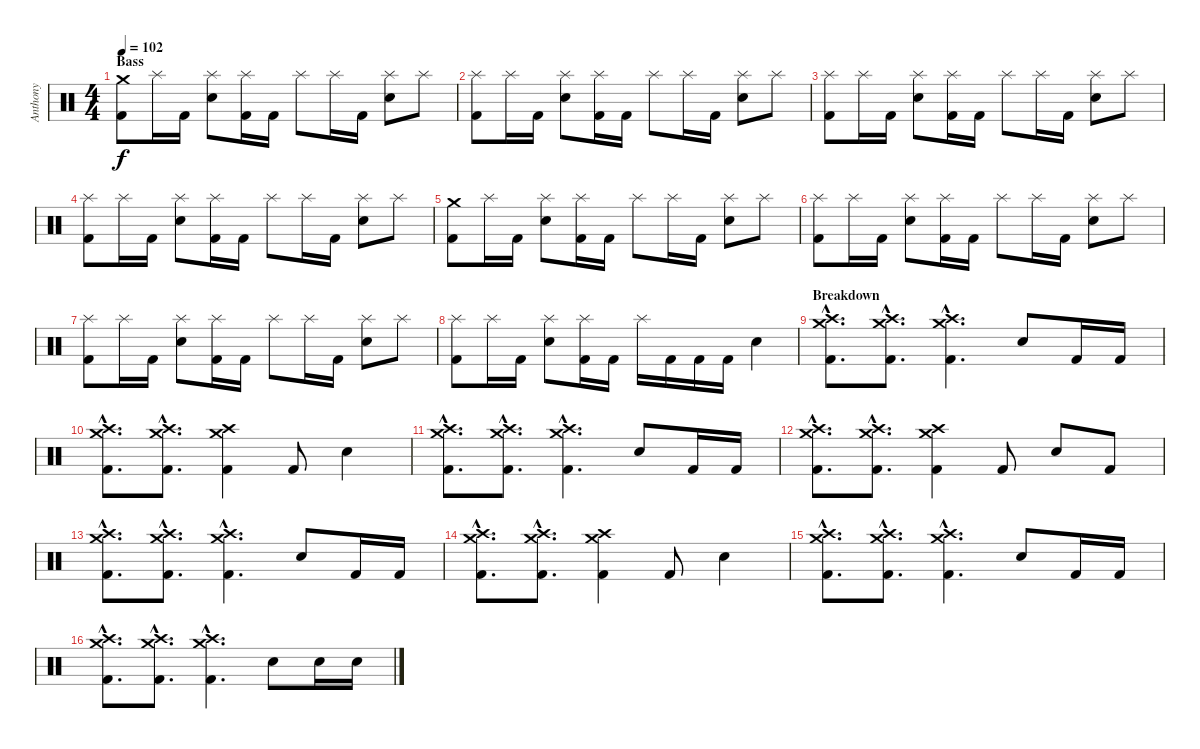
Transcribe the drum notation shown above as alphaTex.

\track ("Anthony" "Anthony") {instrument percussion}
\staff {score}
\articulation defaults
\ts (4 4)
\section ("" "Bass")
\tempo 102
\clef neutral
\ks c
("Crash medium (hit)" "Kick (hit) 2").8{dy f} "Splash (hit)".16 "Kick (hit) 2".16 ("Splash (hit)" "Electric Snare (hit)").8 ("Splash (hit)" "Kick (hit) 2").16 "Kick (hit) 2".16 "Splash (hit)".8 "Splash (hit)".16 "Kick (hit) 2".16 ("Splash (hit)" "Electric Snare (hit)").8 "Splash (hit)".8 |
("Splash (hit)" "Kick (hit) 2").8 "Splash (hit)".16 "Kick (hit) 2".16 ("Splash (hit)" "Electric Snare (hit)").8 ("Splash (hit)" "Kick (hit) 2").16 "Kick (hit) 2".16 "Splash (hit)".8 "Splash (hit)".16 "Kick (hit) 2".16 ("Splash (hit)" "Electric Snare (hit)").8 "Splash (hit)".8 |
("Splash (hit)" "Kick (hit) 2").8 "Splash (hit)".16 "Kick (hit) 2".16 ("Splash (hit)" "Electric Snare (hit)").8 ("Splash (hit)" "Kick (hit) 2").16 "Kick (hit) 2".16 "Splash (hit)".8 "Splash (hit)".16 "Kick (hit) 2".16 ("Splash (hit)" "Electric Snare (hit)").8 "Splash (hit)".8 |
("Splash (hit)" "Kick (hit) 2").8 "Splash (hit)".16 "Kick (hit) 2".16 ("Splash (hit)" "Electric Snare (hit)").8 ("Splash (hit)" "Kick (hit) 2").16 "Kick (hit) 2".16 "Splash (hit)".8 "Splash (hit)".16 "Kick (hit) 2".16 ("Splash (hit)" "Electric Snare (hit)").8 "Splash (hit)".8 |
("Crash medium (hit)" "Kick (hit) 2").8 "Splash (hit)".16 "Kick (hit) 2".16 ("Splash (hit)" "Electric Snare (hit)").8 ("Splash (hit)" "Kick (hit) 2").16 "Kick (hit) 2".16 "Splash (hit)".8 "Splash (hit)".16 "Kick (hit) 2".16 ("Splash (hit)" "Electric Snare (hit)").8 "Splash (hit)".8 |
("Splash (hit)" "Kick (hit) 2").8 "Splash (hit)".16 "Kick (hit) 2".16 ("Splash (hit)" "Electric Snare (hit)").8 ("Splash (hit)" "Kick (hit) 2").16 "Kick (hit) 2".16 "Splash (hit)".8 "Splash (hit)".16 "Kick (hit) 2".16 ("Splash (hit)" "Electric Snare (hit)").8 "Splash (hit)".8 |
("Splash (hit)" "Kick (hit) 2").8 "Splash (hit)".16 "Kick (hit) 2".16 ("Splash (hit)" "Electric Snare (hit)").8 ("Splash (hit)" "Kick (hit) 2").16 "Kick (hit) 2".16 "Splash (hit)".8 "Splash (hit)".16 "Kick (hit) 2".16 ("Splash (hit)" "Electric Snare (hit)").8 "Splash (hit)".8 |
("Splash (hit)" "Kick (hit) 2").8 "Splash (hit)".16 "Kick (hit) 2".16 ("Splash (hit)" "Electric Snare (hit)").8 ("Splash (hit)" "Kick (hit) 2").16 "Kick (hit) 2".16 "Splash (hit)".16 "Kick (hit) 2".16 "Kick (hit) 2".16 "Kick (hit) 2".16 "Electric Snare (hit)".4 |
\section ("" "Breakdown")
("Crash medium (hit)"{hac} "Crash high (hit)"{hac} "Kick (hit) 2"{hac}).8{d} ("Crash medium (hit)"{hac} "Crash high (hit)"{hac} "Kick (hit) 2"{hac}).8{d} ("Crash medium (hit)"{hac} "Crash high (hit)"{hac} "Kick (hit) 2"{hac}).4{d} "Electric Snare (hit)".8 "Kick (hit) 2".16 "Kick (hit) 2".16 |
("Crash medium (hit)"{hac} "Crash high (hit)"{hac} "Kick (hit) 2"{hac}).8{d} ("Crash medium (hit)"{hac} "Crash high (hit)"{hac} "Kick (hit) 2"{hac}).8{d} ("Crash medium (hit)" "Crash high (hit)" "Kick (hit) 2").4 "Kick (hit) 2".8 "Electric Snare (hit)".4 |
("Crash medium (hit)"{hac} "Crash high (hit)"{hac} "Kick (hit) 2"{hac}).8{d} ("Crash medium (hit)"{hac} "Crash high (hit)"{hac} "Kick (hit) 2"{hac}).8{d} ("Crash medium (hit)"{hac} "Crash high (hit)"{hac} "Kick (hit) 2"{hac}).4{d} "Electric Snare (hit)".8 "Kick (hit) 2".16 "Kick (hit) 2".16 |
("Crash medium (hit)"{hac} "Crash high (hit)"{hac} "Kick (hit) 2"{hac}).8{d} ("Crash medium (hit)"{hac} "Crash high (hit)"{hac} "Kick (hit) 2"{hac}).8{d} ("Crash medium (hit)" "Crash high (hit)" "Kick (hit) 2").4 "Kick (hit) 2".8 "Electric Snare (hit)".8 "Kick (hit) 2".8 |
("Crash medium (hit)"{hac} "Crash high (hit)"{hac} "Kick (hit) 2"{hac}).8{d} ("Crash medium (hit)"{hac} "Crash high (hit)"{hac} "Kick (hit) 2"{hac}).8{d} ("Crash medium (hit)"{hac} "Crash high (hit)"{hac} "Kick (hit) 2"{hac}).4{d} "Electric Snare (hit)".8 "Kick (hit) 2".16 "Kick (hit) 2".16 |
("Crash medium (hit)"{hac} "Crash high (hit)"{hac} "Kick (hit) 2"{hac}).8{d} ("Crash medium (hit)"{hac} "Crash high (hit)"{hac} "Kick (hit) 2"{hac}).8{d} ("Crash medium (hit)" "Crash high (hit)" "Kick (hit) 2").4 "Kick (hit) 2".8 "Electric Snare (hit)".4 |
("Crash medium (hit)"{hac} "Crash high (hit)"{hac} "Kick (hit) 2"{hac}).8{d} ("Crash medium (hit)"{hac} "Crash high (hit)"{hac} "Kick (hit) 2"{hac}).8{d} ("Crash medium (hit)"{hac} "Crash high (hit)"{hac} "Kick (hit) 2"{hac}).4{d} "Electric Snare (hit)".8 "Kick (hit) 2".16 "Kick (hit) 2".16 |
("Crash medium (hit)"{hac} "Crash high (hit)"{hac} "Kick (hit) 2"{hac}).8{d} ("Crash medium (hit)"{hac} "Crash high (hit)"{hac} "Kick (hit) 2"{hac}).8{d} ("Crash medium (hit)"{hac} "Crash high (hit)"{hac} "Kick (hit) 2"{hac}).4{d} "Electric Snare (hit)".8 "Electric Snare (hit)".16 "Electric Snare (hit)".16
